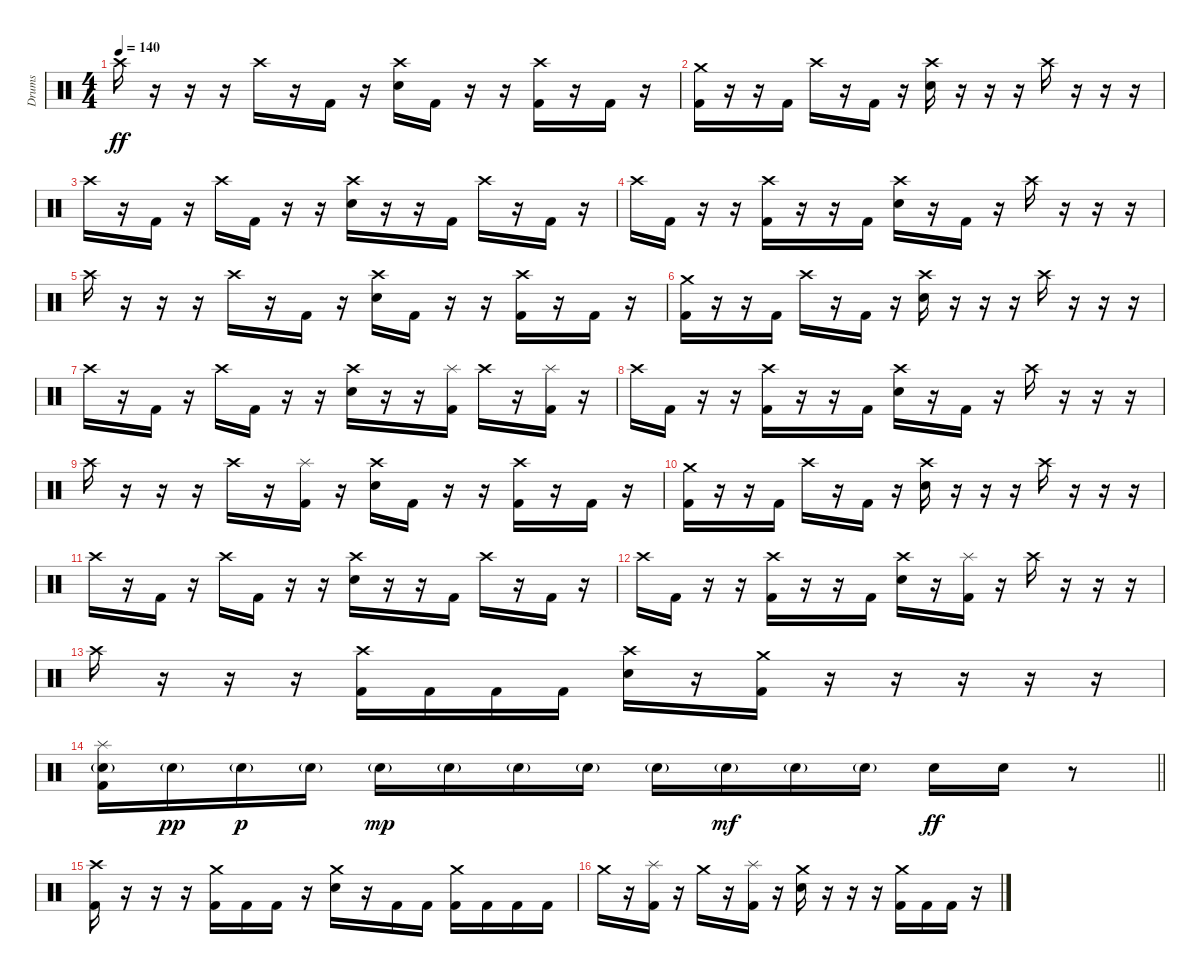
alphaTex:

\track ("Drums" "Drums") {instrument percussion}
\staff {score}
\articulation defaults
\ts (4 4)
\tempo 140
\clef neutral
\ks c "Crash high (hit)".16{dy ff}
r.16 r.16 r.16 "Crash high (hit)".16 r.16 "Kick (hit) 2".16 r.16 ("Crash high (hit)" "Electric Snare (hit)").16 "Kick (hit) 2".16 r.16 r.16 ("Crash high (hit)" "Kick (hit) 2").16 r.16 "Kick (hit) 2".16 r.16 |
("Crash medium (hit)" "Kick (hit) 2").16 r.16 r.16 "Kick (hit) 2".16 "Crash high (hit)".16 r.16 "Kick (hit) 2".16 r.16 ("Crash high (hit)" "Electric Snare (hit)").16 r.16 r.16 r.16 "Crash high (hit)".16 r.16 r.16 r.16 |
"Crash high (hit)".16 r.16 "Kick (hit) 2".16 r.16 "Crash high (hit)".16 "Kick (hit) 2".16 r.16 r.16 ("Crash high (hit)" "Electric Snare (hit)").16 r.16 r.16 "Kick (hit) 2".16 "Crash high (hit)".16 r.16 "Kick (hit) 2".16 r.16 |
"Crash high (hit)".16 "Kick (hit) 2".16 r.16 r.16 ("Crash high (hit)" "Kick (hit) 2").16 r.16 r.16 "Kick (hit) 2".16 ("Crash high (hit)" "Electric Snare (hit)").16 r.16 "Kick (hit) 2".16 r.16 "Crash high (hit)".16 r.16 r.16 r.16 |
"Crash high (hit)".16 r.16 r.16 r.16 "Crash high (hit)".16 r.16 "Kick (hit) 2".16 r.16 ("Crash high (hit)" "Electric Snare (hit)").16 "Kick (hit) 2".16 r.16 r.16 ("Crash high (hit)" "Kick (hit) 2").16 r.16 "Kick (hit) 2".16 r.16 |
("Crash medium (hit)" "Kick (hit) 2").16 r.16 r.16 "Kick (hit) 2".16 "Crash high (hit)".16 r.16 "Kick (hit) 2".16 r.16 ("Crash high (hit)" "Electric Snare (hit)").16 r.16 r.16 r.16 "Crash high (hit)".16 r.16 r.16 r.16 |
"Crash high (hit)".16 r.16 "Kick (hit) 2".16 r.16 "Crash high (hit)".16 "Kick (hit) 2".16 r.16 r.16 ("Crash high (hit)" "Electric Snare (hit)").16 r.16 r.16 ("Splash (hit)" "Kick (hit) 2").16 "Crash high (hit)".16 r.16 ("Splash (hit)" "Kick (hit) 2").16 r.16 |
"Crash high (hit)".16 "Kick (hit) 2".16 r.16 r.16 ("Crash high (hit)" "Kick (hit) 2").16 r.16 r.16 "Kick (hit) 2".16 ("Crash high (hit)" "Electric Snare (hit)").16 r.16 "Kick (hit) 2".16 r.16 "Crash high (hit)".16 r.16 r.16 r.16 |
"Crash high (hit)".16 r.16 r.16 r.16 "Crash high (hit)".16 r.16 ("Splash (hit)" "Kick (hit) 2").16 r.16 ("Crash high (hit)" "Electric Snare (hit)").16 "Kick (hit) 2".16 r.16 r.16 ("Crash high (hit)" "Kick (hit) 2").16 r.16 "Kick (hit) 2".16 r.16 |
("Crash medium (hit)" "Kick (hit) 2").16 r.16 r.16 "Kick (hit) 2".16 "Crash high (hit)".16 r.16 "Kick (hit) 2".16 r.16 ("Crash high (hit)" "Electric Snare (hit)").16 r.16 r.16 r.16 "Crash high (hit)".16 r.16 r.16 r.16 |
"Crash high (hit)".16 r.16 "Kick (hit) 2".16 r.16 "Crash high (hit)".16 "Kick (hit) 2".16 r.16 r.16 ("Crash high (hit)" "Electric Snare (hit)").16 r.16 r.16 "Kick (hit) 2".16 "Crash high (hit)".16 r.16 "Kick (hit) 2".16 r.16 |
"Crash high (hit)".16 "Kick (hit) 2".16 r.16 r.16 ("Crash high (hit)" "Kick (hit) 2").16 r.16 r.16 "Kick (hit) 2".16 ("Crash high (hit)" "Electric Snare (hit)").16 r.16 ("Splash (hit)" "Kick (hit) 2").16 r.16 "Crash high (hit)".16 r.16 r.16 r.16 |
"Crash high (hit)".16 r.16 r.16 r.16 ("Crash high (hit)" "Kick (hit) 2").16 "Kick (hit) 2".16 "Kick (hit) 2".16 "Kick (hit) 2".16 ("Crash high (hit)" "Electric Snare (hit)").16 r.16 ("Crash medium (hit)" "Kick (hit) 2").16 r.16 r.16 r.16 r.16 r.16 |
\barLineRight lightlight
("Splash (hit)" "Electric Snare (hit)"{g} "Kick (hit) 2").16 "Electric Snare (hit)"{g}.16{dy pp} "Electric Snare (hit)"{g}.16{dy p} "Electric Snare (hit)"{g}.16 "Electric Snare (hit)"{g}.16{dy mp} "Electric Snare (hit)"{g}.16 "Electric Snare (hit)"{g}.16 "Electric Snare (hit)"{g}.16 "Electric Snare (hit)"{g}.16 "Electric Snare (hit)"{g}.16{dy mf} "Electric Snare (hit)"{g}.16 "Electric Snare (hit)"{g}.16 "Electric Snare (hit)".16{dy ff} "Electric Snare (hit)".16 r.8 |
\section ("" "")
("Crash high (hit)" "Kick (hit) 2").16 r.16 r.16 r.16 ("Crash medium (hit)" "Kick (hit) 2").16 "Kick (hit) 2".16 "Kick (hit) 2".16 r.16 ("Crash medium (hit)" "Electric Snare (hit)").16 r.16 "Kick (hit) 2".16 "Kick (hit) 2".16 ("Crash medium (hit)" "Kick (hit) 2").16 "Kick (hit) 2".16 "Kick (hit) 2".16 "Kick (hit) 2".16 |
"Crash medium (hit)".16 r.16 ("Splash (hit)" "Kick (hit) 2").16 r.16 "Crash medium (hit)".16 r.16 ("Splash (hit)" "Kick (hit) 2").16 r.16 ("Crash medium (hit)" "Electric Snare (hit)").16 r.16 r.16 r.16 ("Crash medium (hit)" "Kick (hit) 2").16 "Kick (hit) 2".16 "Kick (hit) 2".16 r.16
